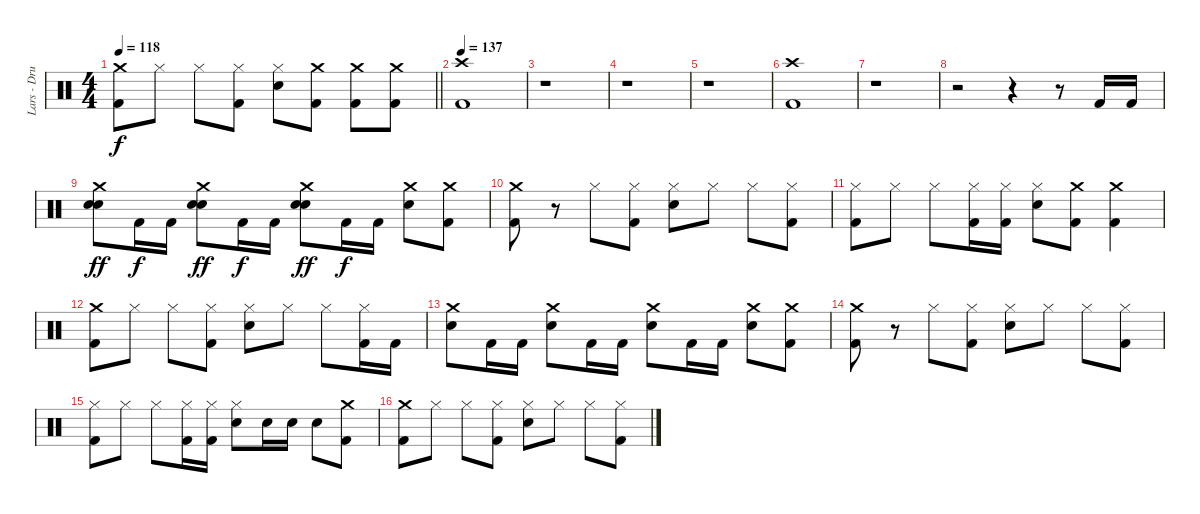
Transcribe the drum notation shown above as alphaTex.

\track ("Lars - Drums" "Lars - Dru") {instrument percussion}
\staff {score}
\articulation defaults
\ts (4 4)
\tempo 118
\clef neutral
\barLineRight lightlight
\ks c
("Crash medium (hit)" "Kick (hit) 2").8{dy f} "Hi-Hat (closed)".8 "Hi-Hat (closed)".8 ("Hi-Hat (closed)" "Kick (hit) 2").8 ("Hi-Hat (closed)" "Snare (hit) 2").8 ("Crash medium (hit)" "Kick (hit) 2").8 ("Crash medium (hit)" "Kick (hit) 2").8 ("Crash medium (hit)" "Kick (hit) 2").8 |
\tempo 137
("Crash high (hit)" "Kick (hit) 2").1 |
r.1 |
r.1 |
r.1 |
("Crash high (hit)" "Kick (hit) 2").1 |
r.1 |
r.2 r.4 r.8 "Kick (hit) 2".16 "Kick (hit) 2".16 |
("Snare (hit) 2" "Crash medium (hit)" "Snare (hit) 2").8{dy ff} "Kick (hit) 2".16{dy f} "Kick (hit) 2".16 ("Snare (hit) 2" "Crash medium (hit)" "Snare (hit) 2").8{dy ff} "Kick (hit) 2".16{dy f} "Kick (hit) 2".16 ("Snare (hit) 2" "Crash medium (hit)" "Snare (hit) 2").8{dy ff} "Kick (hit) 2".16{dy f} "Kick (hit) 2".16 ("Crash medium (hit)" "Snare (hit) 2").8 ("Crash medium (hit)" "Kick (hit) 2").8 |
("Crash medium (hit)" "Kick (hit) 2").8 r.8 "Hi-Hat (closed)".8 ("Hi-Hat (closed)" "Kick (hit) 2").8 ("Hi-Hat (closed)" "Snare (hit) 2").8 "Hi-Hat (closed)".8 "Hi-Hat (closed)".8 ("Hi-Hat (closed)" "Kick (hit) 2").8 |
("Hi-Hat (closed)" "Kick (hit) 2").8 "Hi-Hat (closed)".8 "Hi-Hat (closed)".8 ("Hi-Hat (closed)" "Kick (hit) 2").16 ("Hi-Hat (closed)" "Kick (hit) 2").16 ("Hi-Hat (closed)" "Snare (hit) 2").8 ("Crash medium (hit)" "Kick (hit) 2").8 ("Crash medium (hit)" "Kick (hit) 2").4 |
("Crash medium (hit)" "Kick (hit) 2").8 "Hi-Hat (closed)".8 "Hi-Hat (closed)".8 ("Hi-Hat (closed)" "Kick (hit) 2").8 ("Hi-Hat (closed)" "Snare (hit) 2").8 "Hi-Hat (closed)".8 "Hi-Hat (closed)".8 ("Hi-Hat (closed)" "Kick (hit) 2").16 "Kick (hit) 2".16 |
("Crash medium (hit)" "Snare (hit) 2").8 "Kick (hit) 2".16 "Kick (hit) 2".16 ("Crash medium (hit)" "Snare (hit) 2").8 "Kick (hit) 2".16 "Kick (hit) 2".16 ("Crash medium (hit)" "Snare (hit) 2").8 "Kick (hit) 2".16 "Kick (hit) 2".16 ("Crash medium (hit)" "Snare (hit) 2").8 ("Crash medium (hit)" "Kick (hit) 2").8 |
("Crash medium (hit)" "Kick (hit) 2").8 r.8 "Hi-Hat (closed)".8 ("Hi-Hat (closed)" "Kick (hit) 2").8 ("Hi-Hat (closed)" "Snare (hit) 2").8 "Hi-Hat (closed)".8 "Hi-Hat (closed)".8 ("Hi-Hat (closed)" "Kick (hit) 2").8 |
("Hi-Hat (closed)" "Kick (hit) 2").8 "Hi-Hat (closed)".8 "Hi-Hat (closed)".8 ("Hi-Hat (closed)" "Kick (hit) 2").16 ("Hi-Hat (closed)" "Kick (hit) 2").16 ("Hi-Hat (closed)" "Snare (hit) 2").8 "Snare (hit) 2".16 "Snare (hit) 2".16 "Snare (hit) 2".8 ("Crash medium (hit)" "Kick (hit) 2").8 |
("Crash medium (hit)" "Kick (hit) 2").8 "Hi-Hat (closed)".8 "Hi-Hat (closed)".8 ("Hi-Hat (closed)" "Kick (hit) 2").8 ("Hi-Hat (closed)" "Snare (hit) 2").8 "Hi-Hat (closed)".8 "Hi-Hat (closed)".8 ("Hi-Hat (closed)" "Kick (hit) 2").8
